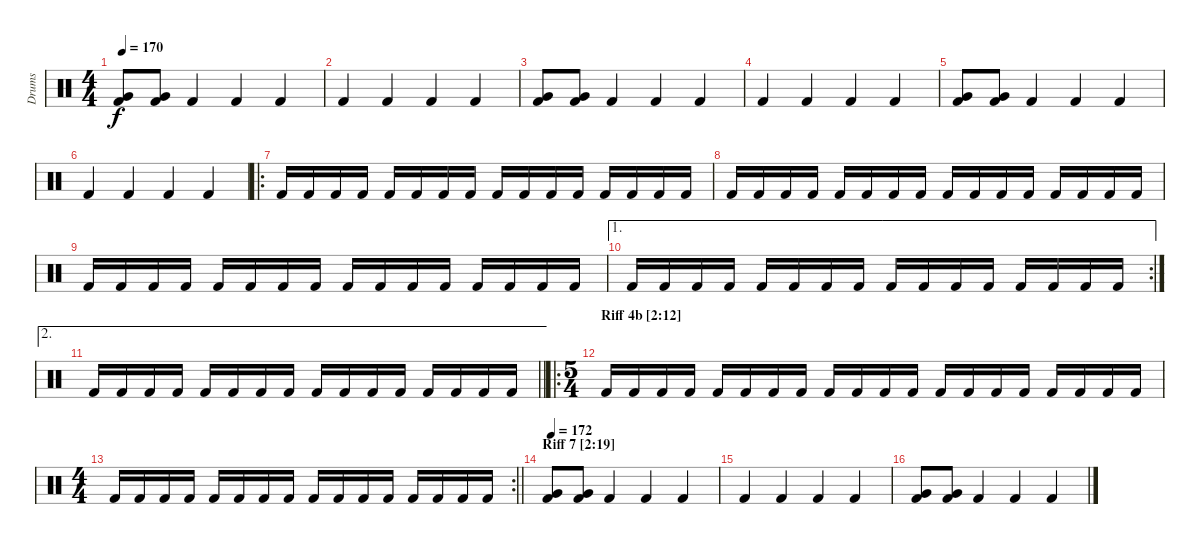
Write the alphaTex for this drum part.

\track ("Drums" "Drums") {instrument percussion}
\staff {score}
\articulation defaults
\ts (4 4)
\tempo 170
\clef neutral
\ks c
("Very Low Tom (hit)" "Kick (hit) 2").8{dy f} ("Very Low Tom (hit)" "Kick (hit) 2").8 "Kick (hit) 2".4 "Kick (hit) 2".4 "Kick (hit) 2".4 |
"Kick (hit) 2".4 "Kick (hit) 2".4 "Kick (hit) 2".4 "Kick (hit) 2".4 |
("Very Low Tom (hit)" "Kick (hit) 2").8 ("Very Low Tom (hit)" "Kick (hit) 2").8 "Kick (hit) 2".4 "Kick (hit) 2".4 "Kick (hit) 2".4 |
"Kick (hit) 2".4 "Kick (hit) 2".4 "Kick (hit) 2".4 "Kick (hit) 2".4 |
("Very Low Tom (hit)" "Kick (hit) 2").8 ("Very Low Tom (hit)" "Kick (hit) 2").8 "Kick (hit) 2".4 "Kick (hit) 2".4 "Kick (hit) 2".4 |
"Kick (hit) 2".4 "Kick (hit) 2".4 "Kick (hit) 2".4 "Kick (hit) 2".4 |
\ro "Kick (hit) 2".16 "Kick (hit) 2".16 "Kick (hit) 2".16 "Kick (hit) 2".16 "Kick (hit) 2".16 "Kick (hit) 2".16 "Kick (hit) 2".16 "Kick (hit) 2".16 "Kick (hit) 2".16 "Kick (hit) 2".16 "Kick (hit) 2".16 "Kick (hit) 2".16 "Kick (hit) 2".16 "Kick (hit) 2".16 "Kick (hit) 2".16 "Kick (hit) 2".16
|
"Kick (hit) 2".16 "Kick (hit) 2".16 "Kick (hit) 2".16 "Kick (hit) 2".16 "Kick (hit) 2".16 "Kick (hit) 2".16 "Kick (hit) 2".16 "Kick (hit) 2".16 "Kick (hit) 2".16 "Kick (hit) 2".16 "Kick (hit) 2".16 "Kick (hit) 2".16 "Kick (hit) 2".16 "Kick (hit) 2".16 "Kick (hit) 2".16 "Kick (hit) 2".16 |
"Kick (hit) 2".16 "Kick (hit) 2".16 "Kick (hit) 2".16 "Kick (hit) 2".16 "Kick (hit) 2".16 "Kick (hit) 2".16 "Kick (hit) 2".16 "Kick (hit) 2".16 "Kick (hit) 2".16 "Kick (hit) 2".16 "Kick (hit) 2".16 "Kick (hit) 2".16 "Kick (hit) 2".16 "Kick (hit) 2".16 "Kick (hit) 2".16 "Kick (hit) 2".16 |
\ae 1
\rc 2 "Kick (hit) 2".16 "Kick (hit) 2".16 "Kick (hit) 2".16 "Kick (hit) 2".16 "Kick (hit) 2".16 "Kick (hit) 2".16 "Kick (hit) 2".16 "Kick (hit) 2".16 "Kick (hit) 2".16 "Kick (hit) 2".16 "Kick (hit) 2".16 "Kick (hit) 2".16 "Kick (hit) 2".16 "Kick (hit) 2".16 "Kick (hit) 2".16 "Kick (hit) 2".16
|
\ae 2
\barLineRight lightlight "Kick (hit) 2".16 "Kick (hit) 2".16 "Kick (hit) 2".16 "Kick (hit) 2".16 "Kick (hit) 2".16 "Kick (hit) 2".16 "Kick (hit) 2".16 "Kick (hit) 2".16 "Kick (hit) 2".16 "Kick (hit) 2".16 "Kick (hit) 2".16 "Kick (hit) 2".16 "Kick (hit) 2".16 "Kick (hit) 2".16 "Kick (hit) 2".16 "Kick (hit) 2".16
|
\ro
\ts (5 4)
\section ("" "Riff 4b [2:12]")
"Kick (hit) 2".16 "Kick (hit) 2".16 "Kick (hit) 2".16 "Kick (hit) 2".16 "Kick (hit) 2".16 "Kick (hit) 2".16 "Kick (hit) 2".16 "Kick (hit) 2".16 "Kick (hit) 2".16 "Kick (hit) 2".16 "Kick (hit) 2".16 "Kick (hit) 2".16 "Kick (hit) 2".16 "Kick (hit) 2".16 "Kick (hit) 2".16 "Kick (hit) 2".16 "Kick (hit) 2".16 "Kick (hit) 2".16 "Kick (hit) 2".16 "Kick (hit) 2".16 |
\rc 2
\ts (4 4)
\barLineRight lightlight "Kick (hit) 2".16 "Kick (hit) 2".16 "Kick (hit) 2".16 "Kick (hit) 2".16 "Kick (hit) 2".16 "Kick (hit) 2".16 "Kick (hit) 2".16 "Kick (hit) 2".16 "Kick (hit) 2".16 "Kick (hit) 2".16 "Kick (hit) 2".16 "Kick (hit) 2".16 "Kick (hit) 2".16 "Kick (hit) 2".16 "Kick (hit) 2".16 "Kick (hit) 2".16
|
\section ("" "Riff 7 [2:19]")
\tempo 172
("Very Low Tom (hit)" "Kick (hit) 2").8 ("Very Low Tom (hit)" "Kick (hit) 2").8 "Kick (hit) 2".4 "Kick (hit) 2".4 "Kick (hit) 2".4 |
"Kick (hit) 2".4 "Kick (hit) 2".4 "Kick (hit) 2".4 "Kick (hit) 2".4 |
("Very Low Tom (hit)" "Kick (hit) 2").8 ("Very Low Tom (hit)" "Kick (hit) 2").8 "Kick (hit) 2".4 "Kick (hit) 2".4 "Kick (hit) 2".4
